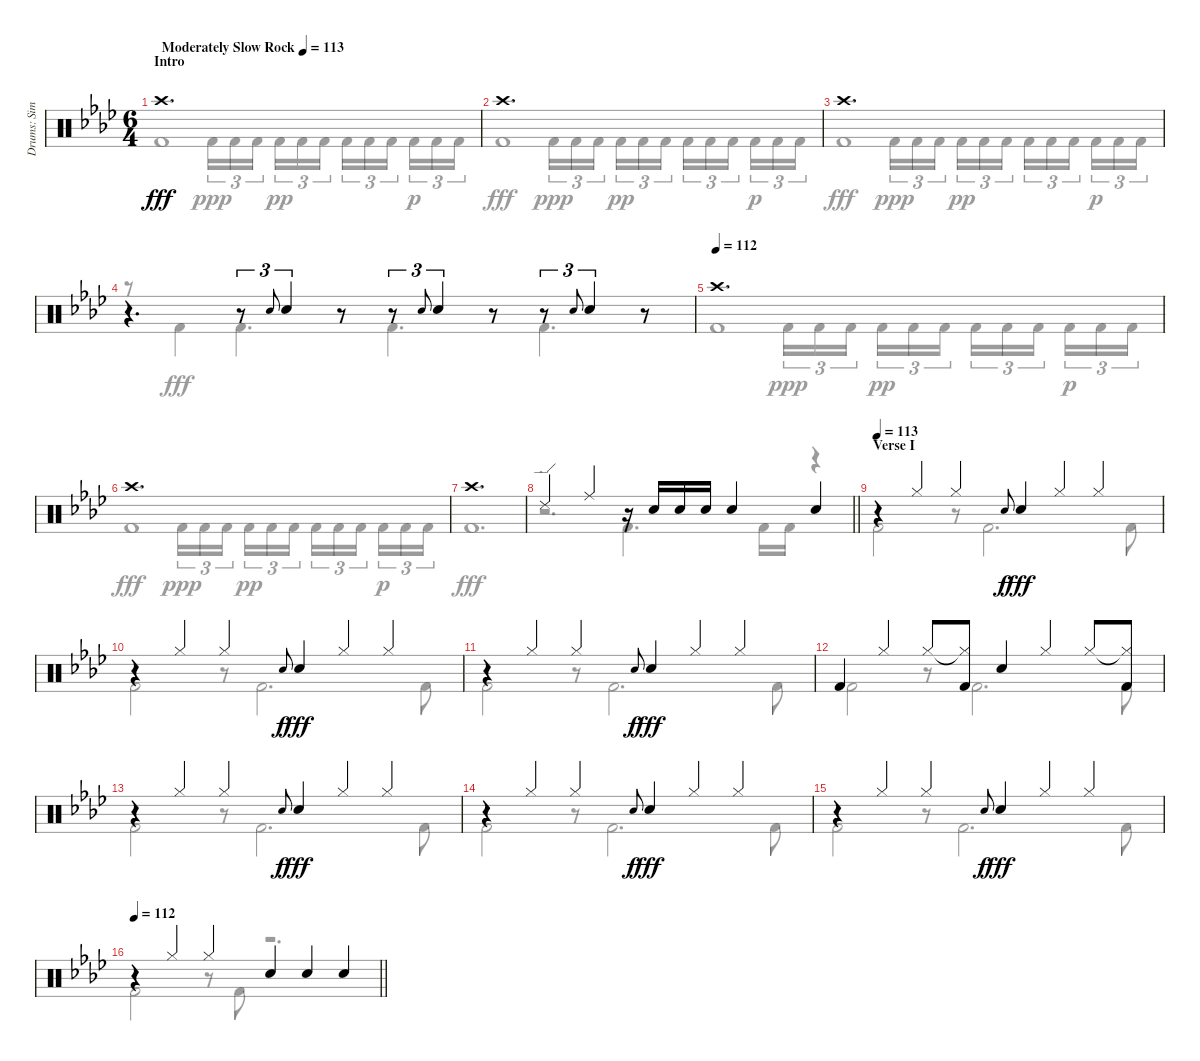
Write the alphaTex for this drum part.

\track ("Drums: Simon" "Drums: Sim") {instrument percussion}
\staff {score}
\articulation defaults
\voice
\ts (6 4)
\section ("" "Intro")
\tempo (113 "Moderately Slow Rock")
\tempo 110
\tempo (113 "Moderately Slow Rock")
\clef neutral
\ks ab "Crash high (hit)".1{d dy fff}
|
"Crash high (hit)".1{d} |
"Crash high (hit)".1{d} |
r.4{d} r.8{tu (3 2)} "Electric Snare (hit)".8{gr onbeat} "Snare (hit) 2".4{tu (3 2)} r.8 r.8{tu (3 2)} "Electric Snare (hit)".8{gr onbeat} "Snare (hit) 2".4{tu (3 2)} r.8 r.8{tu (3 2)} "Electric Snare (hit)".8{gr onbeat} "Snare (hit) 2".4{tu (3 2)} r.8 |
\tempo (112)
"Crash high (hit)".1{d} |
"Crash high (hit)".1{d} |
"Crash high (hit)".1{d} |
\barLineRight lightlight "Ride (edge) 2".2 "Ride (middle)".4
r.16 "Electric Snare (hit)".16 "Electric Snare (hit)".16 "Electric Snare (hit)".16 "Electric Snare (hit)".4 "Electric Snare (hit)".4 |
\section ("" "Verse I")
\tempo 113
r.4 "Hi-Hat (closed)".4 "Hi-Hat (closed)".4 "Electric Snare (hit)".8{gr onbeat dy f} "Snare (hit) 2".4{dy fff} "Hi-Hat (closed)".4 "Hi-Hat (closed)".4 |
r.4 "Hi-Hat (closed)".4 "Hi-Hat (closed)".4 "Snare (hit) 2".8{gr onbeat dy f} "Electric Snare (hit)".4{dy fff} "Hi-Hat (closed)".4 "Hi-Hat (closed)".4 |
r.4 "Hi-Hat (closed)".4 "Hi-Hat (closed)".4 "Snare (hit) 2".8{gr onbeat dy f} "Electric Snare (hit)".4{dy fff} "Hi-Hat (closed)".4 "Hi-Hat (closed)".4 |
"Kick (hit) 2".4 "Hi-Hat (closed)".4 "Hi-Hat (closed)".8 ("Hi-Hat (closed)"{t} "Kick (hit) 2").8 "Electric Snare (hit)".4 "Hi-Hat (closed)".4 "Hi-Hat (closed)".8 ("Hi-Hat (closed)"{t} "Kick (hit) 2").8 |
r.4 "Hi-Hat (closed)".4 "Hi-Hat (closed)".4 "Snare (hit) 2".8{gr onbeat dy f} "Electric Snare (hit)".4{dy fff} "Hi-Hat (closed)".4 "Hi-Hat (closed)".4 |
r.4 "Hi-Hat (closed)".4 "Hi-Hat (closed)".4 "Snare (hit) 2".8{gr onbeat dy f} "Electric Snare (hit)".4{dy fff} "Hi-Hat (closed)".4 "Hi-Hat (closed)".4 |
r.4 "Hi-Hat (closed)".4 "Hi-Hat (closed)".4 "Snare (hit) 2".8{gr onbeat dy f} "Electric Snare (hit)".4{dy fff} "Hi-Hat (closed)".4 "Hi-Hat (closed)".4 |
\tempo 112
\barLineRight lightlight
r.4 "Hi-Hat (closed)".4 "Hi-Hat (closed)".4 "Electric Snare (hit)".4 "Electric Snare (hit)".4 "Electric Snare (hit)".4
\voice
\clef neutral
\ottava regular
\simile none
\ks ab "Kick (hit) 2".1{dy fff} "Kick (hit) 2".16{tu (3 2) dy ppp} "Kick (hit) 2".16{tu (3 2)} "Kick (hit) 2".16{tu (3 2) beam splitsecondary} "Kick (hit) 2".16{tu (3 2) dy pp} "Kick (hit) 2".16{tu (3 2)} "Kick (hit) 2".16{tu (3 2) beam splitsecondary} "Kick (hit) 2".16{tu (3 2)} "Kick (hit) 2".16{tu (3 2)} "Kick (hit) 2".16{tu (3 2) beam splitsecondary} "Kick (hit) 2".16{tu (3 2) dy p} "Kick (hit) 2".16{tu (3 2)} "Kick (hit) 2".16{tu (3 2)}
|
"Kick (hit) 2".1{dy fff} "Kick (hit) 2".16{tu (3 2) dy ppp} "Kick (hit) 2".16{tu (3 2)} "Kick (hit) 2".16{tu (3 2) beam splitsecondary} "Kick (hit) 2".16{tu (3 2) dy pp} "Kick (hit) 2".16{tu (3 2)} "Kick (hit) 2".16{tu (3 2) beam splitsecondary} "Kick (hit) 2".16{tu (3 2)} "Kick (hit) 2".16{tu (3 2)} "Kick (hit) 2".16{tu (3 2) beam splitsecondary} "Kick (hit) 2".16{tu (3 2) dy p} "Kick (hit) 2".16{tu (3 2)} "Kick (hit) 2".16{tu (3 2)} |
"Kick (hit) 2".1{dy fff} "Kick (hit) 2".16{tu (3 2) dy ppp} "Kick (hit) 2".16{tu (3 2)} "Kick (hit) 2".16{tu (3 2) beam splitsecondary} "Kick (hit) 2".16{tu (3 2) dy pp} "Kick (hit) 2".16{tu (3 2)} "Kick (hit) 2".16{tu (3 2) beam splitsecondary} "Kick (hit) 2".16{tu (3 2)} "Kick (hit) 2".16{tu (3 2)} "Kick (hit) 2".16{tu (3 2) beam splitsecondary} "Kick (hit) 2".16{tu (3 2) dy p} "Kick (hit) 2".16{tu (3 2)} "Kick (hit) 2".16{tu (3 2)} |
r.8 "Kick (hit) 2".4{dy fff} "Kick (hit) 2".4{d} "Kick (hit) 2".4{d} "Kick (hit) 2".4{d} |
"Kick (hit) 2".1 "Kick (hit) 2".16{tu (3 2) dy ppp} "Kick (hit) 2".16{tu (3 2)} "Kick (hit) 2".16{tu (3 2) beam splitsecondary} "Kick (hit) 2".16{tu (3 2) dy pp} "Kick (hit) 2".16{tu (3 2)} "Kick (hit) 2".16{tu (3 2) beam splitsecondary} "Kick (hit) 2".16{tu (3 2)} "Kick (hit) 2".16{tu (3 2)} "Kick (hit) 2".16{tu (3 2) beam splitsecondary} "Kick (hit) 2".16{tu (3 2) dy p} "Kick (hit) 2".16{tu (3 2)} "Kick (hit) 2".16{tu (3 2)} |
"Kick (hit) 2".1{dy fff} "Kick (hit) 2".16{tu (3 2) dy ppp} "Kick (hit) 2".16{tu (3 2)} "Kick (hit) 2".16{tu (3 2) beam splitsecondary} "Kick (hit) 2".16{tu (3 2) dy pp} "Kick (hit) 2".16{tu (3 2)} "Kick (hit) 2".16{tu (3 2) beam splitsecondary} "Kick (hit) 2".16{tu (3 2)} "Kick (hit) 2".16{tu (3 2)} "Kick (hit) 2".16{tu (3 2) beam splitsecondary} "Kick (hit) 2".16{tu (3 2) dy p} "Kick (hit) 2".16{tu (3 2)} "Kick (hit) 2".16{tu (3 2)} |
"Kick (hit) 2".1{d dy fff} |
\barLineRight lightlight
r.2{d} "Kick (hit) 2".4{d} "Kick (hit) 2".16 "Kick (hit) 2".16 r.4 |
"Kick (hit) 2".2 r.8 "Kick (hit) 2".2{d} "Kick (hit) 2".8 |
"Kick (hit) 2".2 r.8 "Kick (hit) 2".2{d} "Kick (hit) 2".8 |
"Kick (hit) 2".2 r.8 "Kick (hit) 2".2{d} "Kick (hit) 2".8 |
"Kick (hit) 2".2 r.8 "Kick (hit) 2".2{d} "Kick (hit) 2".8 |
"Kick (hit) 2".2 r.8 "Kick (hit) 2".2{d} "Kick (hit) 2".8 |
"Kick (hit) 2".2 r.8 "Kick (hit) 2".2{d} "Kick (hit) 2".8 |
"Kick (hit) 2".2 r.8 "Kick (hit) 2".2{d} "Kick (hit) 2".8 |
\barLineRight lightlight "Kick (hit) 2".2
r.8 "Kick (hit) 2".8 r.2{d}
